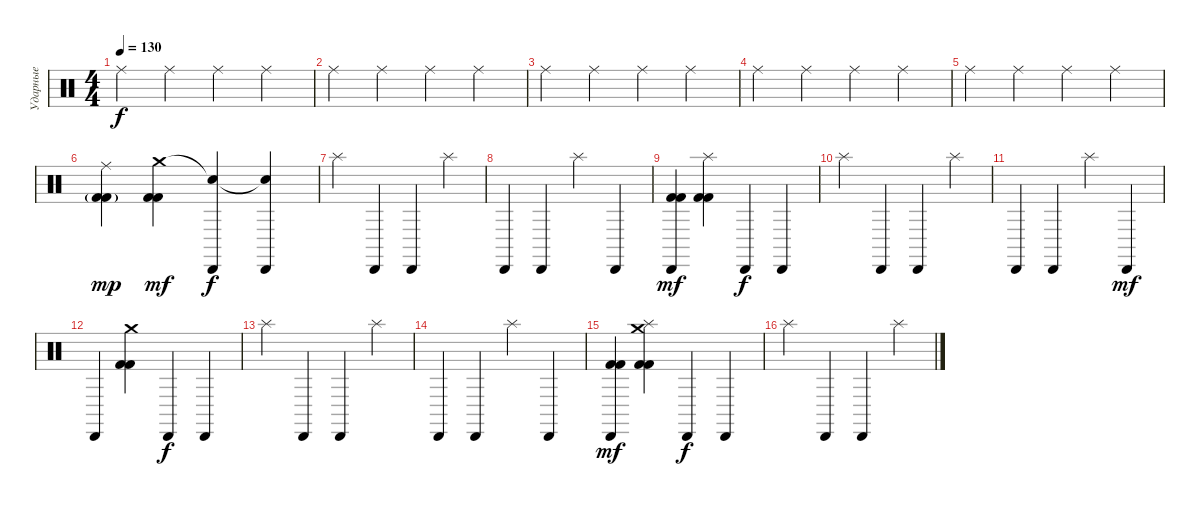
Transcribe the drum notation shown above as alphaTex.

\track ("Ударные" "Ударные") {instrument percussion}
\staff {score}
\articulation defaults
\ts (4 4)
\tempo 130
\clef neutral
\ks c "Ride (middle)".4{dy f} "Ride (middle)".4 "Ride (middle)".4 "Ride (middle)".4
|
"Ride (middle)".4 "Ride (middle)".4 "Ride (middle)".4 "Ride (middle)".4 |
"Ride (middle)".4 "Ride (middle)".4 "Ride (middle)".4 "Ride (middle)".4 |
"Ride (middle)".4 "Ride (middle)".4 "Ride (middle)".4 "Ride (middle)".4 |
"Ride (middle)".4 "Ride (middle)".4 "Ride (middle)".4 "Ride (middle)".4 |
("Ride (middle)" "Kick (hit) 2"{g} "Kick (hit) 2"{g}).4{dy mp} ("Crash medium (hit)" "Kick (hit) 2" "Kick (hit) 2").4{dy mf} ("Snare (hit)"{t} "Cabasa (hit)").4{dy f} ("Snare (hit)"{t} "Cabasa (hit)").4 |
"Splash (hit)".4 "Cabasa (hit)".4 "Cabasa (hit)".4 "Splash (hit)".4 |
"Cabasa (hit)".4 "Cabasa (hit)".4 "Splash (hit)".4 "Cabasa (hit)".4 |
("Cabasa (hit)" "Kick (hit) 2" "Kick (hit) 2").4{dy mf} ("Splash (hit)" "Kick (hit) 2" "Kick (hit) 2").4 "Cabasa (hit)".4{dy f} "Cabasa (hit)".4 |
"Splash (hit)".4 "Cabasa (hit)".4 "Cabasa (hit)".4 "Splash (hit)".4 |
"Cabasa (hit)".4 "Cabasa (hit)".4 "Splash (hit)".4 "Cabasa (hit)".4{dy mf} |
"Cabasa (hit)".4 ("Crash medium (hit)" "Kick (hit) 2" "Kick (hit) 2").4 "Cabasa (hit)".4{dy f} "Cabasa (hit)".4 |
"Splash (hit)".4 "Cabasa (hit)".4 "Cabasa (hit)".4 "Splash (hit)".4 |
"Cabasa (hit)".4 "Cabasa (hit)".4 "Splash (hit)".4 "Cabasa (hit)".4 |
("Cabasa (hit)" "Kick (hit) 2" "Kick (hit) 2").4{dy mf} ("Crash medium (hit)" "Splash (hit)" "Kick (hit) 2" "Kick (hit) 2").4 "Cabasa (hit)".4{dy f} "Cabasa (hit)".4 |
"Splash (hit)".4 "Cabasa (hit)".4 "Cabasa (hit)".4 "Splash (hit)".4
